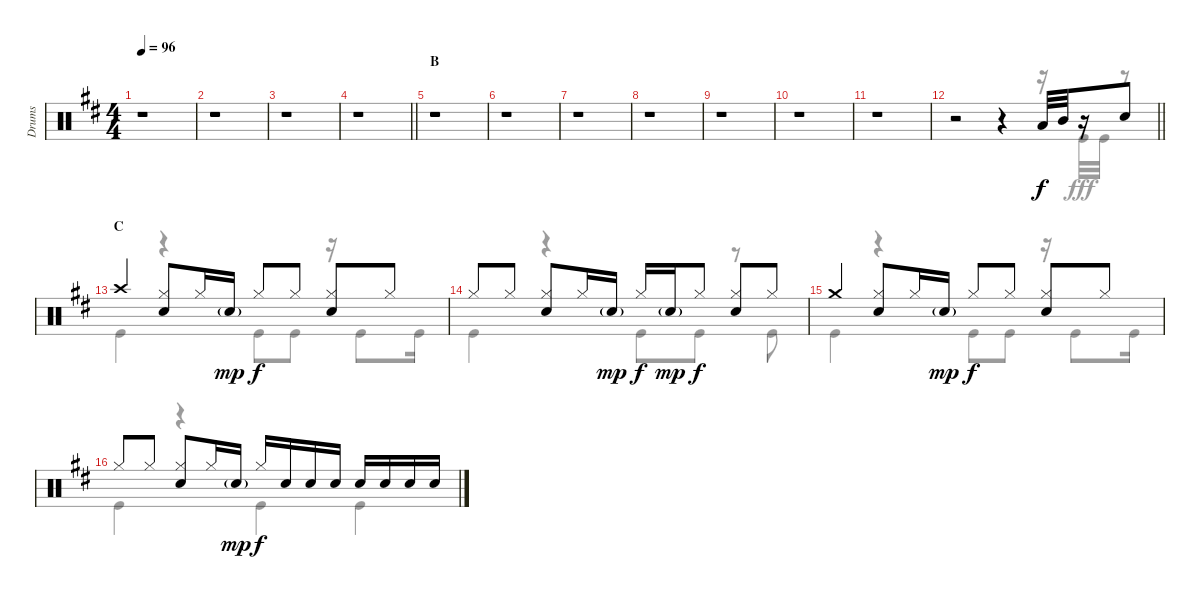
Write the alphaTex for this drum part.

\track ("Drums" "Drums") {instrument percussion}
\staff {score}
\articulation defaults
\voice
\ts (4 4)
\tempo 96
\clef neutral
\ks d
r.1{dy f} |
r.1 |
r.1 |
\barLineRight lightlight
r.1 |
\section ("" "B")
r.1 |
r.1 |
r.1 |
r.1 |
r.1 |
r.1 |
r.1 |
\barLineRight lightlight
r.2 r.4 "Low Tom (hit)".32 "Mid Tom (hit)".32 r.16 "Snare (hit) 2".8 |
\section ("" "C")
"Crash high (hit)".4 ("Hi-Hat (closed)" "Snare (hit) 2").8 "Hi-Hat (closed)".16 "Snare (hit) 2"{g}.16{dy mp} "Hi-Hat (closed)".8{dy f} "Hi-Hat (closed)".8 ("Hi-Hat (closed)" "Snare (hit) 2").8 "Hi-Hat (closed)".8 |
"Hi-Hat (closed)".8 "Hi-Hat (closed)".8 ("Hi-Hat (closed)" "Snare (hit) 2").8 "Hi-Hat (closed)".16 "Snare (hit) 2"{g}.16{dy mp} "Hi-Hat (closed)".16{dy f} "Snare (hit) 2"{g}.16{dy mp} "Hi-Hat (closed)".8{dy f} ("Hi-Hat (closed)" "Snare (hit) 2").8 "Hi-Hat (closed)".8 |
"Crash medium (hit)".4 ("Hi-Hat (closed)" "Snare (hit) 2").8 "Hi-Hat (closed)".16 "Snare (hit) 2"{g}.16{dy mp} "Hi-Hat (closed)".8{dy f} "Hi-Hat (closed)".8 ("Hi-Hat (closed)" "Snare (hit) 2").8 "Hi-Hat (closed)".8 |
"Hi-Hat (closed)".8 "Hi-Hat (closed)".8 ("Hi-Hat (closed)" "Snare (hit) 2").8 "Hi-Hat (closed)".16 "Snare (hit) 2"{g}.16{dy mp} "Hi-Hat (closed)".16{dy f} "Snare (hit) 2".16 "Snare (hit) 2".16 "Snare (hit) 2".16 "Snare (hit) 2".16 "Snare (hit) 2".16 "Snare (hit) 2".16 "Snare (hit) 2".16
\voice
\clef neutral
\ottava regular
\simile none
\ks d
r.1{dy fff} |
r.1 |
r.1 |
\barLineRight lightlight
r.1 |
r.1 |
r.1 |
r.1 |
r.1 |
r.1 |
r.1 |
r.1 |
\barLineRight lightlight
r.2 r.4 r.16 "Kick (hit)".32 "Kick (hit)".32 r.8 |
"Kick (hit)".4 r.4 "Kick (hit)".8 "Kick (hit)".8 r.16 "Kick (hit)".8 "Kick (hit)".16 |
"Kick (hit)".4 r.4 "Kick (hit)".8 "Kick (hit)".8 r.8 "Kick (hit)".8 |
"Kick (hit)".4 r.4 "Kick (hit)".8 "Kick (hit)".8 r.16 "Kick (hit)".8 "Kick (hit)".16 |
"Kick (hit)".4 r.4 "Kick (hit)".4 "Kick (hit)".4
